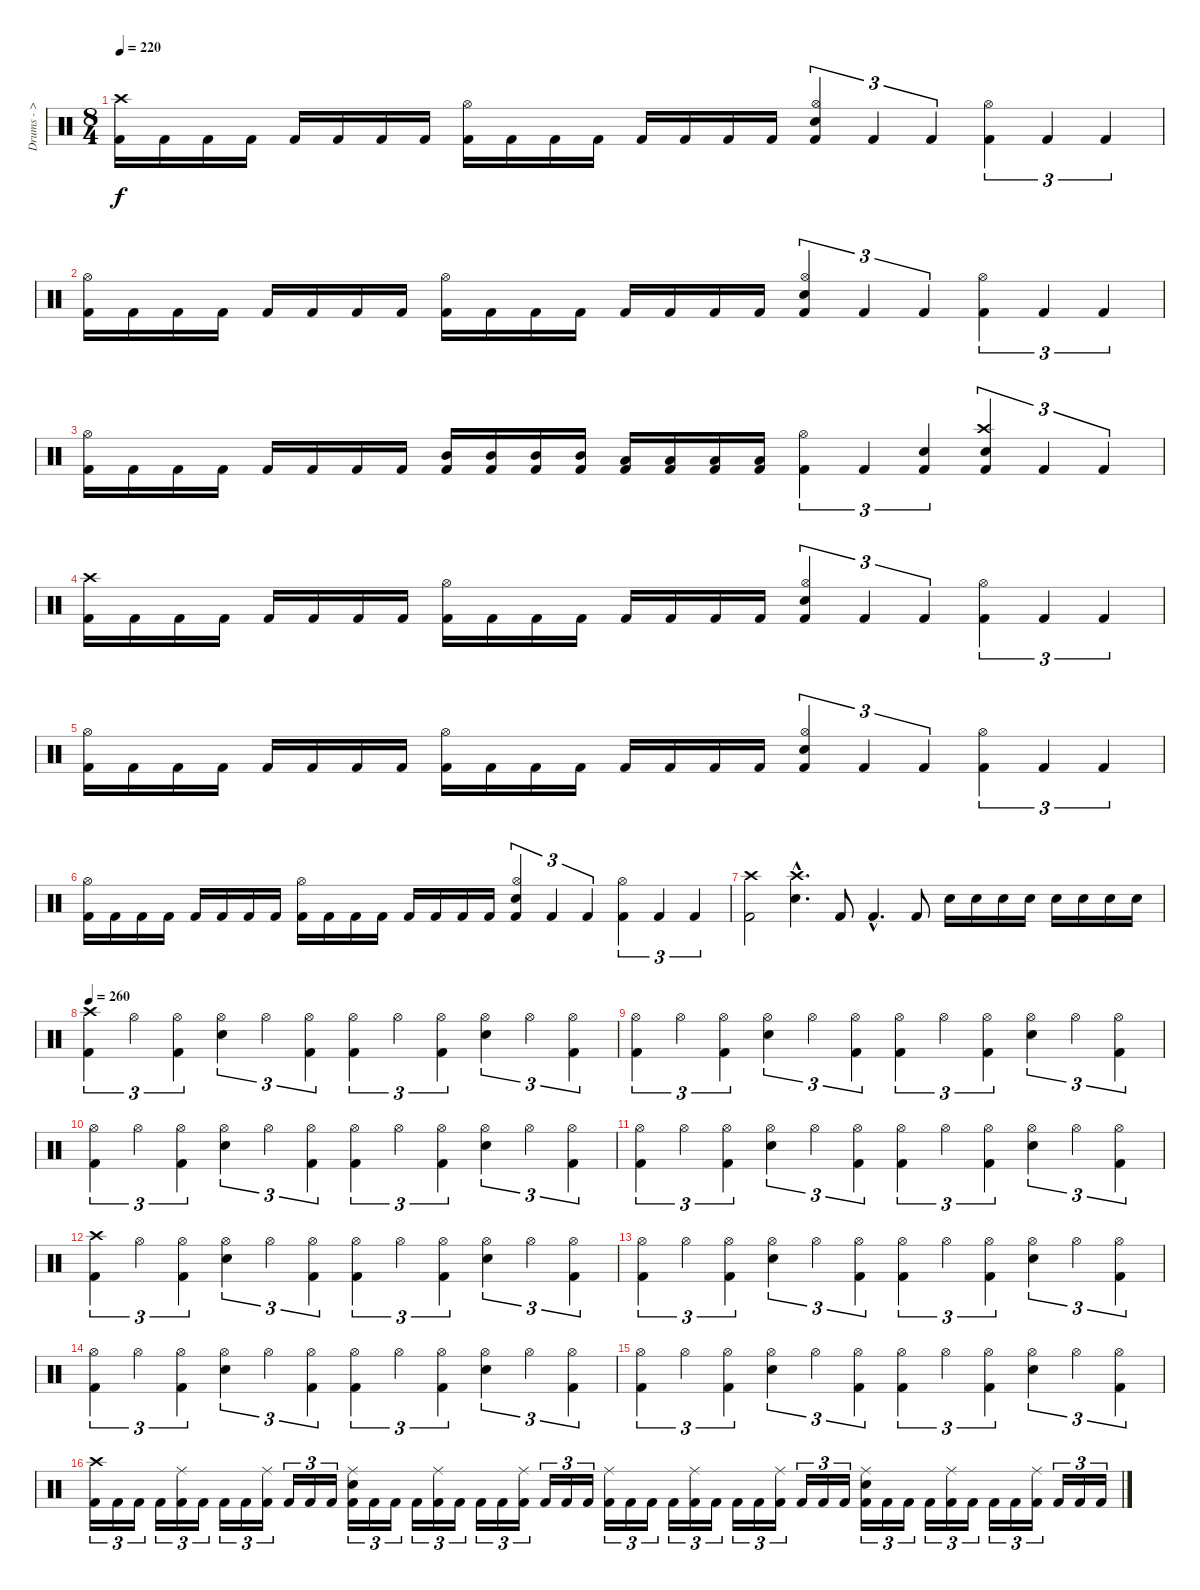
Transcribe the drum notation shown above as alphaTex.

\track ("Drums - > Nicholas" "Drums - > ") {instrument percussion}
\staff {score}
\articulation defaults
\ts (8 4)
\tempo 220
\clef neutral
\ks c
("Kick (hit) 2" "Crash high (hit)").16{dy f} "Kick (hit) 2".16 "Kick (hit) 2".16 "Kick (hit) 2".16 "Kick (hit) 2".16 "Kick (hit) 2".16 "Kick (hit) 2".16 "Kick (hit) 2".16 ("Kick (hit) 2" "Hi-Hat (open)").16 "Kick (hit) 2".16 "Kick (hit) 2".16 "Kick (hit) 2".16 "Kick (hit) 2".16 "Kick (hit) 2".16 "Kick (hit) 2".16 "Kick (hit) 2".16 ("Kick (hit) 2" "Snare (hit) 2" "Hi-Hat (open)").4{tu (3 2)} "Kick (hit) 2".4{tu (3 2)} "Kick (hit) 2".4{tu (3 2)} ("Kick (hit) 2" "Hi-Hat (open)").4{tu (3 2)} "Kick (hit) 2".4{tu (3 2)} "Kick (hit) 2".4{tu (3 2)} |
("Kick (hit) 2" "Hi-Hat (open)").16 "Kick (hit) 2".16 "Kick (hit) 2".16 "Kick (hit) 2".16 "Kick (hit) 2".16 "Kick (hit) 2".16 "Kick (hit) 2".16 "Kick (hit) 2".16 ("Kick (hit) 2" "Hi-Hat (open)").16 "Kick (hit) 2".16 "Kick (hit) 2".16 "Kick (hit) 2".16 "Kick (hit) 2".16 "Kick (hit) 2".16 "Kick (hit) 2".16 "Kick (hit) 2".16 ("Kick (hit) 2" "Snare (hit) 2" "Hi-Hat (open)").4{tu (3 2)} "Kick (hit) 2".4{tu (3 2)} "Kick (hit) 2".4{tu (3 2)} ("Kick (hit) 2" "Hi-Hat (open)").4{tu (3 2)} "Kick (hit) 2".4{tu (3 2)} "Kick (hit) 2".4{tu (3 2)} |
("Kick (hit) 2" "Hi-Hat (open)").16 "Kick (hit) 2".16 "Kick (hit) 2".16 "Kick (hit) 2".16 "Kick (hit) 2".16 "Kick (hit) 2".16 "Kick (hit) 2".16 "Kick (hit) 2".16 ("Kick (hit) 2" "Mid Tom (hit)").16 ("Kick (hit) 2" "Mid Tom (hit)").16 ("Kick (hit) 2" "Mid Tom (hit)").16 ("Kick (hit) 2" "Mid Tom (hit)").16 ("Kick (hit) 2" "Low Tom (hit)").16 ("Kick (hit) 2" "Low Tom (hit)").16 ("Kick (hit) 2" "Low Tom (hit)").16 ("Kick (hit) 2" "Low Tom (hit)").16 ("Kick (hit) 2" "Hi-Hat (open)").4{tu (3 2)} "Kick (hit) 2".4{tu (3 2)} ("Kick (hit) 2" "Snare (hit) 2").4{tu (3 2)} ("Kick (hit) 2" "Snare (hit) 2" "Crash high (hit)").4{tu (3 2)} "Kick (hit) 2".4{tu (3 2)} "Kick (hit) 2".4{tu (3 2)} |
("Kick (hit) 2" "Crash high (hit)").16 "Kick (hit) 2".16 "Kick (hit) 2".16 "Kick (hit) 2".16 "Kick (hit) 2".16 "Kick (hit) 2".16 "Kick (hit) 2".16 "Kick (hit) 2".16 ("Kick (hit) 2" "Hi-Hat (open)").16 "Kick (hit) 2".16 "Kick (hit) 2".16 "Kick (hit) 2".16 "Kick (hit) 2".16 "Kick (hit) 2".16 "Kick (hit) 2".16 "Kick (hit) 2".16 ("Kick (hit) 2" "Snare (hit) 2" "Hi-Hat (open)").4{tu (3 2)} "Kick (hit) 2".4{tu (3 2)} "Kick (hit) 2".4{tu (3 2)} ("Kick (hit) 2" "Hi-Hat (open)").4{tu (3 2)} "Kick (hit) 2".4{tu (3 2)} "Kick (hit) 2".4{tu (3 2)} |
("Kick (hit) 2" "Hi-Hat (open)").16 "Kick (hit) 2".16 "Kick (hit) 2".16 "Kick (hit) 2".16 "Kick (hit) 2".16 "Kick (hit) 2".16 "Kick (hit) 2".16 "Kick (hit) 2".16 ("Kick (hit) 2" "Hi-Hat (open)").16 "Kick (hit) 2".16 "Kick (hit) 2".16 "Kick (hit) 2".16 "Kick (hit) 2".16 "Kick (hit) 2".16 "Kick (hit) 2".16 "Kick (hit) 2".16 ("Kick (hit) 2" "Snare (hit) 2" "Hi-Hat (open)").4{tu (3 2)} "Kick (hit) 2".4{tu (3 2)} "Kick (hit) 2".4{tu (3 2)} ("Kick (hit) 2" "Hi-Hat (open)").4{tu (3 2)} "Kick (hit) 2".4{tu (3 2)} "Kick (hit) 2".4{tu (3 2)} |
("Kick (hit) 2" "Hi-Hat (open)").16 "Kick (hit) 2".16 "Kick (hit) 2".16 "Kick (hit) 2".16 "Kick (hit) 2".16 "Kick (hit) 2".16 "Kick (hit) 2".16 "Kick (hit) 2".16 ("Kick (hit) 2" "Hi-Hat (open)").16 "Kick (hit) 2".16 "Kick (hit) 2".16 "Kick (hit) 2".16 "Kick (hit) 2".16 "Kick (hit) 2".16 "Kick (hit) 2".16 "Kick (hit) 2".16 ("Kick (hit) 2" "Snare (hit) 2" "Hi-Hat (open)").4{tu (3 2)} "Kick (hit) 2".4{tu (3 2)} "Kick (hit) 2".4{tu (3 2)} ("Kick (hit) 2" "Hi-Hat (open)").4{tu (3 2)} "Kick (hit) 2".4{tu (3 2)} "Kick (hit) 2".4{tu (3 2)} |
("Kick (hit) 2" "Crash high (hit)").2 ("Snare (hit) 2"{hac} "Crash high (hit)"{hac}).4{d} "Kick (hit) 2".8 "Kick (hit) 2"{hac}.4{d} "Kick (hit) 2".8 "Snare (hit) 2".16 "Snare (hit) 2".16 "Snare (hit) 2".16 "Snare (hit) 2".16 "Snare (hit) 2".16 "Snare (hit) 2".16 "Snare (hit) 2".16 "Snare (hit) 2".16 |
\tempo 260
("Kick (hit) 2" "Crash high (hit)").4{tu (3 2)} "Hi-Hat (open)".4{tu (3 2)} ("Kick (hit) 2" "Hi-Hat (open)").4{tu (3 2)} ("Snare (hit) 2" "Hi-Hat (open)").4{tu (3 2)} "Hi-Hat (open)".4{tu (3 2)} ("Kick (hit) 2" "Hi-Hat (open)").4{tu (3 2)} ("Kick (hit) 2" "Hi-Hat (open)").4{tu (3 2)} "Hi-Hat (open)".4{tu (3 2)} ("Kick (hit) 2" "Hi-Hat (open)").4{tu (3 2)} ("Snare (hit) 2" "Hi-Hat (open)").4{tu (3 2)} "Hi-Hat (open)".4{tu (3 2)} ("Kick (hit) 2" "Hi-Hat (open)").4{tu (3 2)} |
("Kick (hit) 2" "Hi-Hat (open)").4{tu (3 2)} "Hi-Hat (open)".4{tu (3 2)} ("Kick (hit) 2" "Hi-Hat (open)").4{tu (3 2)} ("Snare (hit) 2" "Hi-Hat (open)").4{tu (3 2)} "Hi-Hat (open)".4{tu (3 2)} ("Kick (hit) 2" "Hi-Hat (open)").4{tu (3 2)} ("Kick (hit) 2" "Hi-Hat (open)").4{tu (3 2)} "Hi-Hat (open)".4{tu (3 2)} ("Kick (hit) 2" "Hi-Hat (open)").4{tu (3 2)} ("Snare (hit) 2" "Hi-Hat (open)").4{tu (3 2)} "Hi-Hat (open)".4{tu (3 2)} ("Kick (hit) 2" "Hi-Hat (open)").4{tu (3 2)} |
("Kick (hit) 2" "Hi-Hat (open)").4{tu (3 2)} "Hi-Hat (open)".4{tu (3 2)} ("Kick (hit) 2" "Hi-Hat (open)").4{tu (3 2)} ("Snare (hit) 2" "Hi-Hat (open)").4{tu (3 2)} "Hi-Hat (open)".4{tu (3 2)} ("Kick (hit) 2" "Hi-Hat (open)").4{tu (3 2)} ("Kick (hit) 2" "Hi-Hat (open)").4{tu (3 2)} "Hi-Hat (open)".4{tu (3 2)} ("Kick (hit) 2" "Hi-Hat (open)").4{tu (3 2)} ("Snare (hit) 2" "Hi-Hat (open)").4{tu (3 2)} "Hi-Hat (open)".4{tu (3 2)} ("Kick (hit) 2" "Hi-Hat (open)").4{tu (3 2)} |
("Kick (hit) 2" "Hi-Hat (open)").4{tu (3 2)} "Hi-Hat (open)".4{tu (3 2)} ("Kick (hit) 2" "Hi-Hat (open)").4{tu (3 2)} ("Snare (hit) 2" "Hi-Hat (open)").4{tu (3 2)} "Hi-Hat (open)".4{tu (3 2)} ("Kick (hit) 2" "Hi-Hat (open)").4{tu (3 2)} ("Kick (hit) 2" "Hi-Hat (open)").4{tu (3 2)} "Hi-Hat (open)".4{tu (3 2)} ("Kick (hit) 2" "Hi-Hat (open)").4{tu (3 2)} ("Snare (hit) 2" "Hi-Hat (open)").4{tu (3 2)} "Hi-Hat (open)".4{tu (3 2)} ("Kick (hit) 2" "Hi-Hat (open)").4{tu (3 2)} |
("Kick (hit) 2" "Crash high (hit)").4{tu (3 2)} "Hi-Hat (open)".4{tu (3 2)} ("Kick (hit) 2" "Hi-Hat (open)").4{tu (3 2)} ("Snare (hit) 2" "Hi-Hat (open)").4{tu (3 2)} "Hi-Hat (open)".4{tu (3 2)} ("Kick (hit) 2" "Hi-Hat (open)").4{tu (3 2)} ("Kick (hit) 2" "Hi-Hat (open)").4{tu (3 2)} "Hi-Hat (open)".4{tu (3 2)} ("Kick (hit) 2" "Hi-Hat (open)").4{tu (3 2)} ("Snare (hit) 2" "Hi-Hat (open)").4{tu (3 2)} "Hi-Hat (open)".4{tu (3 2)} ("Kick (hit) 2" "Hi-Hat (open)").4{tu (3 2)} |
("Kick (hit) 2" "Hi-Hat (open)").4{tu (3 2)} "Hi-Hat (open)".4{tu (3 2)} ("Kick (hit) 2" "Hi-Hat (open)").4{tu (3 2)} ("Snare (hit) 2" "Hi-Hat (open)").4{tu (3 2)} "Hi-Hat (open)".4{tu (3 2)} ("Kick (hit) 2" "Hi-Hat (open)").4{tu (3 2)} ("Kick (hit) 2" "Hi-Hat (open)").4{tu (3 2)} "Hi-Hat (open)".4{tu (3 2)} ("Kick (hit) 2" "Hi-Hat (open)").4{tu (3 2)} ("Snare (hit) 2" "Hi-Hat (open)").4{tu (3 2)} "Hi-Hat (open)".4{tu (3 2)} ("Kick (hit) 2" "Hi-Hat (open)").4{tu (3 2)} |
("Kick (hit) 2" "Hi-Hat (open)").4{tu (3 2)} "Hi-Hat (open)".4{tu (3 2)} ("Kick (hit) 2" "Hi-Hat (open)").4{tu (3 2)} ("Snare (hit) 2" "Hi-Hat (open)").4{tu (3 2)} "Hi-Hat (open)".4{tu (3 2)} ("Kick (hit) 2" "Hi-Hat (open)").4{tu (3 2)} ("Kick (hit) 2" "Hi-Hat (open)").4{tu (3 2)} "Hi-Hat (open)".4{tu (3 2)} ("Kick (hit) 2" "Hi-Hat (open)").4{tu (3 2)} ("Snare (hit) 2" "Hi-Hat (open)").4{tu (3 2)} "Hi-Hat (open)".4{tu (3 2)} ("Kick (hit) 2" "Hi-Hat (open)").4{tu (3 2)} |
("Kick (hit) 2" "Hi-Hat (open)").4{tu (3 2)} "Hi-Hat (open)".4{tu (3 2)} ("Kick (hit) 2" "Hi-Hat (open)").4{tu (3 2)} ("Snare (hit) 2" "Hi-Hat (open)").4{tu (3 2)} "Hi-Hat (open)".4{tu (3 2)} ("Kick (hit) 2" "Hi-Hat (open)").4{tu (3 2)} ("Kick (hit) 2" "Hi-Hat (open)").4{tu (3 2)} "Hi-Hat (open)".4{tu (3 2)} ("Kick (hit) 2" "Hi-Hat (open)").4{tu (3 2)} ("Snare (hit) 2" "Hi-Hat (open)").4{tu (3 2)} "Hi-Hat (open)".4{tu (3 2)} ("Kick (hit) 2" "Hi-Hat (open)").4{tu (3 2)} |
("Kick (hit) 2" "Crash high (hit)").16{tu (3 2)} "Kick (hit) 2".16{tu (3 2)} "Kick (hit) 2".16{tu (3 2)} "Kick (hit) 2".16{tu (3 2)} ("Kick (hit) 2" "Ride (middle)").16{tu (3 2)} "Kick (hit) 2".16{tu (3 2)} "Kick (hit) 2".16{tu (3 2)} "Kick (hit) 2".16{tu (3 2)} ("Kick (hit) 2" "Ride (middle)").16{tu (3 2)} "Kick (hit) 2".16{tu (3 2)} "Kick (hit) 2".16{tu (3 2)} "Kick (hit) 2".16{tu (3 2)} ("Kick (hit) 2" "Snare (hit) 2" "Ride (middle)").16{tu (3 2)} "Kick (hit) 2".16{tu (3 2)} "Kick (hit) 2".16{tu (3 2)} "Kick (hit) 2".16{tu (3 2)} ("Kick (hit) 2" "Ride (middle)").16{tu (3 2)} "Kick (hit) 2".16{tu (3 2)} "Kick (hit) 2".16{tu (3 2)} "Kick (hit) 2".16{tu (3 2)} ("Kick (hit) 2" "Ride (middle)").16{tu (3 2)} "Kick (hit) 2".16{tu (3 2)} "Kick (hit) 2".16{tu (3 2)} "Kick (hit) 2".16{tu (3 2)} ("Kick (hit) 2" "Ride (middle)").16{tu (3 2)} "Kick (hit) 2".16{tu (3 2)} "Kick (hit) 2".16{tu (3 2)} "Kick (hit) 2".16{tu (3 2)} ("Kick (hit) 2" "Ride (middle)").16{tu (3 2)} "Kick (hit) 2".16{tu (3 2)} "Kick (hit) 2".16{tu (3 2)} "Kick (hit) 2".16{tu (3 2)} ("Kick (hit) 2" "Ride (middle)").16{tu (3 2)} "Kick (hit) 2".16{tu (3 2)} "Kick (hit) 2".16{tu (3 2)} "Kick (hit) 2".16{tu (3 2)} ("Kick (hit) 2" "Snare (hit) 2" "Ride (middle)").16{tu (3 2)} "Kick (hit) 2".16{tu (3 2)} "Kick (hit) 2".16{tu (3 2)} "Kick (hit) 2".16{tu (3 2)} ("Kick (hit) 2" "Ride (middle)").16{tu (3 2)} "Kick (hit) 2".16{tu (3 2)} "Kick (hit) 2".16{tu (3 2)} "Kick (hit) 2".16{tu (3 2)} ("Kick (hit) 2" "Ride (middle)").16{tu (3 2)} "Kick (hit) 2".16{tu (3 2)} "Kick (hit) 2".16{tu (3 2)} "Kick (hit) 2".16{tu (3 2)}
